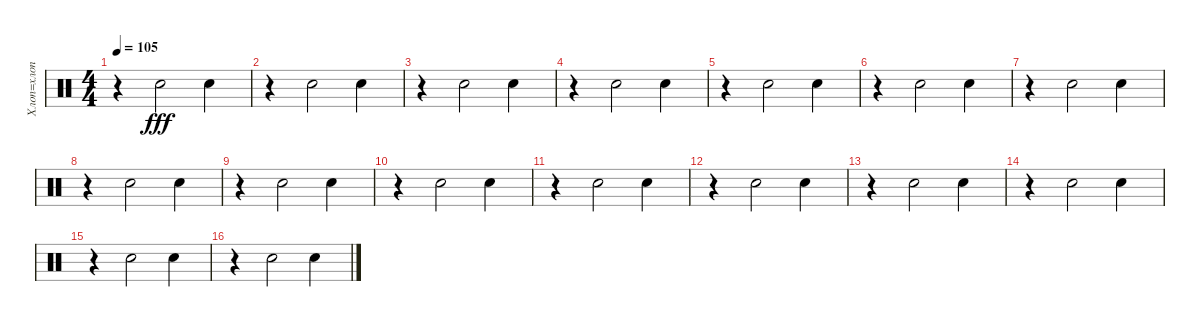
\track ("Хлоп=хлоп" "Хлоп=хлоп") {instrument percussion}
\staff {score}
\articulation defaults
\ts (4 4)
\tempo 105
\clef neutral
\ks c
r.4{dy fff} "Hand Clap (hit)".2 "Hand Clap (hit)".4 |
r.4 "Hand Clap (hit)".2 "Hand Clap (hit)".4 |
r.4 "Hand Clap (hit)".2 "Hand Clap (hit)".4 |
r.4 "Hand Clap (hit)".2 "Hand Clap (hit)".4 |
r.4 "Hand Clap (hit)".2 "Hand Clap (hit)".4 |
r.4 "Hand Clap (hit)".2 "Hand Clap (hit)".4 |
r.4 "Hand Clap (hit)".2 "Hand Clap (hit)".4 |
r.4 "Hand Clap (hit)".2 "Hand Clap (hit)".4 |
r.4 "Hand Clap (hit)".2 "Hand Clap (hit)".4 |
r.4 "Hand Clap (hit)".2 "Hand Clap (hit)".4 |
r.4 "Hand Clap (hit)".2 "Hand Clap (hit)".4 |
r.4 "Hand Clap (hit)".2 "Hand Clap (hit)".4 |
r.4 "Hand Clap (hit)".2 "Hand Clap (hit)".4 |
r.4 "Hand Clap (hit)".2 "Hand Clap (hit)".4 |
r.4 "Hand Clap (hit)".2 "Hand Clap (hit)".4 |
r.4 "Hand Clap (hit)".2 "Hand Clap (hit)".4
